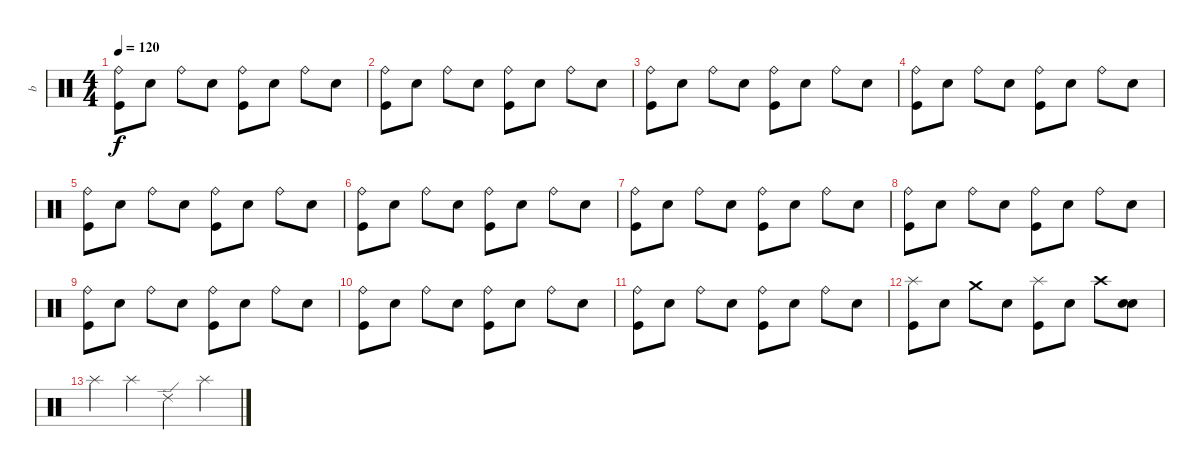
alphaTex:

\track ("b" "b") {instrument percussion}
\staff {score}
\articulation defaults
\ts (4 4)
\tempo 120
\clef neutral
\ks c
("Ride (bell)" "Kick (hit)").8{dy f} "Electric Snare (hit)".8 "Ride (bell)".8 "Electric Snare (hit)".8 ("Ride (bell)" "Kick (hit)").8 "Electric Snare (hit)".8 "Ride (bell)".8 "Electric Snare (hit)".8 |
("Ride (bell)" "Kick (hit)").8 "Electric Snare (hit)".8 "Ride (bell)".8 "Electric Snare (hit)".8 ("Ride (bell)" "Kick (hit)").8 "Electric Snare (hit)".8 "Ride (bell)".8 "Electric Snare (hit)".8 |
("Ride (bell)" "Kick (hit)").8 "Electric Snare (hit)".8 "Ride (bell)".8 "Electric Snare (hit)".8 ("Ride (bell)" "Kick (hit)").8 "Electric Snare (hit)".8 "Ride (bell)".8 "Electric Snare (hit)".8 |
("Ride (bell)" "Kick (hit)").8 "Electric Snare (hit)".8 "Ride (bell)".8 "Electric Snare (hit)".8 ("Ride (bell)" "Kick (hit)").8 "Electric Snare (hit)".8 "Ride (bell)".8 "Electric Snare (hit)".8 |
("Ride (bell)" "Kick (hit)").8 "Electric Snare (hit)".8 "Ride (bell)".8 "Electric Snare (hit)".8 ("Ride (bell)" "Kick (hit)").8 "Electric Snare (hit)".8 "Ride (bell)".8 "Electric Snare (hit)".8 |
("Ride (bell)" "Kick (hit)").8 "Electric Snare (hit)".8 "Ride (bell)".8 "Electric Snare (hit)".8 ("Ride (bell)" "Kick (hit)").8 "Electric Snare (hit)".8 "Ride (bell)".8 "Electric Snare (hit)".8 |
("Ride (bell)" "Kick (hit)").8 "Electric Snare (hit)".8 "Ride (bell)".8 "Electric Snare (hit)".8 ("Ride (bell)" "Kick (hit)").8 "Electric Snare (hit)".8 "Ride (bell)".8 "Electric Snare (hit)".8 |
("Ride (bell)" "Kick (hit)").8 "Electric Snare (hit)".8 "Ride (bell)".8 "Electric Snare (hit)".8 ("Ride (bell)" "Kick (hit)").8 "Electric Snare (hit)".8 "Ride (bell)".8 "Electric Snare (hit)".8 |
("Ride (bell)" "Kick (hit)").8 "Electric Snare (hit)".8 "Ride (bell)".8 "Electric Snare (hit)".8 ("Ride (bell)" "Kick (hit)").8 "Electric Snare (hit)".8 "Ride (bell)".8 "Electric Snare (hit)".8 |
("Ride (bell)" "Kick (hit)").8 "Electric Snare (hit)".8 "Ride (bell)".8 "Electric Snare (hit)".8 ("Ride (bell)" "Kick (hit)").8 "Electric Snare (hit)".8 "Ride (bell)".8 "Electric Snare (hit)".8 |
("Ride (bell)" "Kick (hit)").8 "Electric Snare (hit)".8 "Ride (bell)".8 "Electric Snare (hit)".8 ("Ride (bell)" "Kick (hit)").8 "Electric Snare (hit)".8 "Ride (bell)".8 "Electric Snare (hit)".8 |
("Splash (hit)" "Kick (hit)").8 "Electric Snare (hit)".8 "Crash medium (hit)".8 "Electric Snare (hit)".8 ("Splash (hit)" "Kick (hit)").8 "Electric Snare (hit)".8 "Crash high (hit)".8 ("Snare (hit) 2" "Electric Snare (hit)").8 |
"Splash (hit)".4 "Splash (hit)".4 "Ride (edge) 2".4 "Splash (hit)".4
